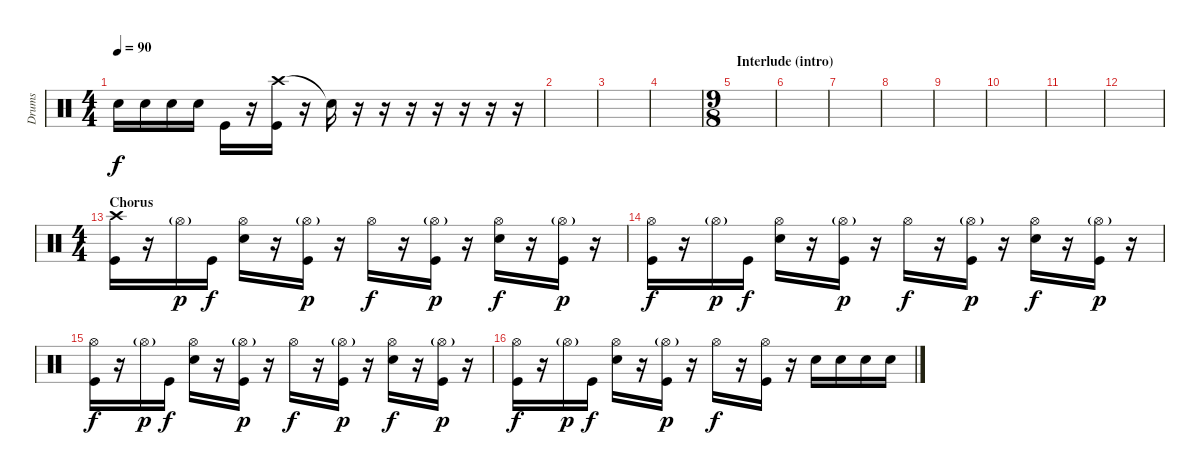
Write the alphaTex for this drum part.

\track ("Drums" "Drums") {instrument percussion}
\staff {score}
\articulation defaults
\ts (4 4)
\tempo 90
\clef neutral
\ks c "Snare (hit) 2".16{dy f} "Snare (hit) 2".16 "Snare (hit) 2".16 "Snare (hit) 2".16 "Kick (hit)".16
r.16 ("Crash high (hit)" "Kick (hit)").16 r.16 "Snare (hit)"{t}.16 r.16 r.16 r.16 r.16 r.16 r.16 r.16 |
|
|
|
\ts (9 8)
\section ("" "Interlude (intro)")
|
|
|
|
|
|
|
|
\ts (4 4)
\section ("" "Chorus")
("Crash high (hit)" "Kick (hit)").16 r.16 "Hi-Hat (open)"{g}.16{dy p} "Kick (hit)".16{dy f} ("Hi-Hat (open)" "Snare (hit) 2").16 r.16 ("Hi-Hat (open)"{g} "Kick (hit)").16{dy p} r.16 "Hi-Hat (open)".16{dy f} r.16 ("Hi-Hat (open)"{g} "Kick (hit)").16{dy p} r.16 ("Hi-Hat (open)" "Snare (hit) 2").16{dy f} r.16 ("Hi-Hat (open)"{g} "Kick (hit)").16{dy p} r.16 |
("Hi-Hat (open)" "Kick (hit)").16{dy f} r.16 "Hi-Hat (open)"{g}.16{dy p} "Kick (hit)".16{dy f} ("Hi-Hat (open)" "Snare (hit) 2").16 r.16 ("Hi-Hat (open)"{g} "Kick (hit)").16{dy p} r.16 "Hi-Hat (open)".16{dy f} r.16 ("Hi-Hat (open)"{g} "Kick (hit)").16{dy p} r.16 ("Hi-Hat (open)" "Snare (hit) 2").16{dy f} r.16 ("Hi-Hat (open)"{g} "Kick (hit)").16{dy p} r.16 |
("Hi-Hat (open)" "Kick (hit)").16{dy f} r.16 "Hi-Hat (open)"{g}.16{dy p} "Kick (hit)".16{dy f} ("Hi-Hat (open)" "Snare (hit) 2").16 r.16 ("Hi-Hat (open)"{g} "Kick (hit)").16{dy p} r.16 "Hi-Hat (open)".16{dy f} r.16 ("Hi-Hat (open)"{g} "Kick (hit)").16{dy p} r.16 ("Hi-Hat (open)" "Snare (hit) 2").16{dy f} r.16 ("Hi-Hat (open)"{g} "Kick (hit)").16{dy p} r.16 |
("Hi-Hat (open)" "Kick (hit)").16{dy f} r.16 "Hi-Hat (open)"{g}.16{dy p} "Kick (hit)".16{dy f} ("Hi-Hat (open)" "Snare (hit) 2").16 r.16 ("Hi-Hat (open)"{g} "Kick (hit)").16{dy p} r.16 "Hi-Hat (open)".16{dy f} r.16 ("Hi-Hat (open)" "Kick (hit)").16 r.16 "Snare (hit) 2".16 "Snare (hit) 2".16 "Snare (hit) 2".16 "Snare (hit) 2".16
